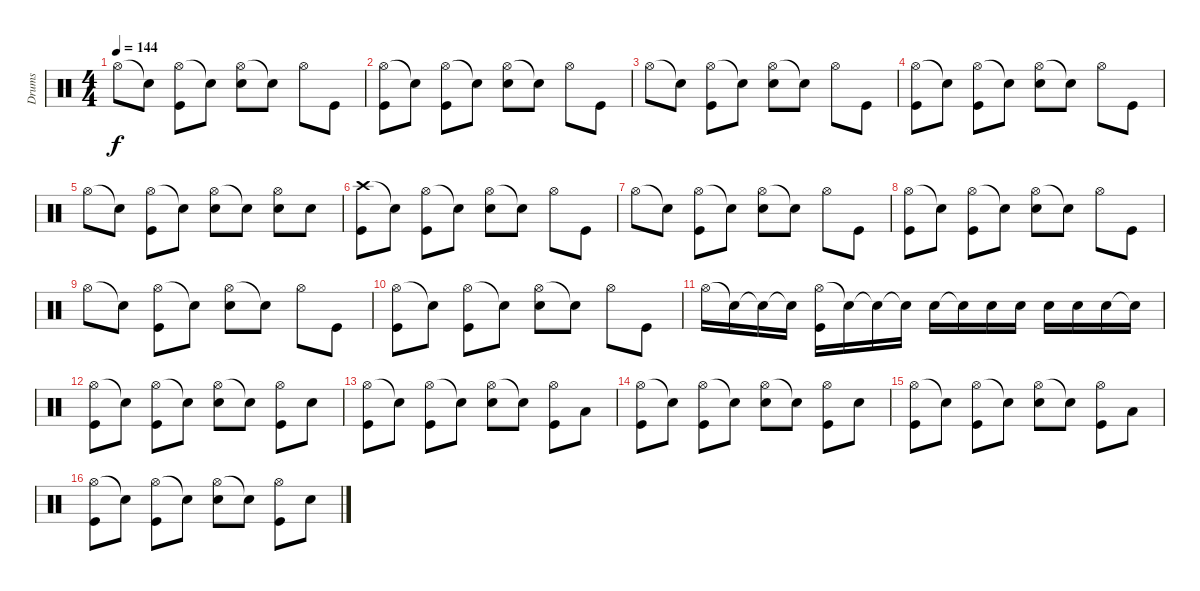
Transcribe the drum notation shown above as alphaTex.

\track ("Drums               " "Drums     ") {instrument percussion}
\staff {score}
\articulation defaults
\ts (4 4)
\tempo 144
\clef neutral
\ks c "Hi-Hat (open)".8{dy f} "Snare (hit)"{t}.8
("Hi-Hat (open)" "Kick (hit)").8 "Snare (hit)"{t}.8 ("Hi-Hat (open)" "Snare (hit) 2").8 "Snare (hit)"{t}.8 "Hi-Hat (open)".8 "Kick (hit)".8 |
("Hi-Hat (open)" "Kick (hit)").8 "Snare (hit)"{t}.8 ("Hi-Hat (open)" "Kick (hit)").8 "Snare (hit)"{t}.8 ("Hi-Hat (open)" "Snare (hit) 2").8 "Snare (hit)"{t}.8 "Hi-Hat (open)".8 "Kick (hit)".8 |
"Hi-Hat (open)".8 "Snare (hit)"{t}.8 ("Hi-Hat (open)" "Kick (hit)").8 "Snare (hit)"{t}.8 ("Hi-Hat (open)" "Snare (hit) 2").8 "Snare (hit)"{t}.8 "Hi-Hat (open)".8 "Kick (hit)".8 |
("Hi-Hat (open)" "Kick (hit)").8 "Snare (hit)"{t}.8 ("Hi-Hat (open)" "Kick (hit)").8 "Snare (hit)"{t}.8 ("Hi-Hat (open)" "Snare (hit) 2").8 "Snare (hit)"{t}.8 "Hi-Hat (open)".8 "Kick (hit)".8 |
"Hi-Hat (open)".8 "Snare (hit)"{t}.8 ("Hi-Hat (open)" "Kick (hit)").8 "Snare (hit)"{t}.8 ("Hi-Hat (open)" "Snare (hit) 2").8 "Snare (hit)"{t}.8 ("Hi-Hat (open)" "Snare (hit) 2").8 "Snare (hit) 2".8 |
("Crash high (hit)" "Kick (hit)").8 "Snare (hit)"{t}.8 ("Hi-Hat (open)" "Kick (hit)").8 "Snare (hit)"{t}.8 ("Hi-Hat (open)" "Snare (hit) 2").8 "Snare (hit)"{t}.8 "Hi-Hat (open)".8 "Kick (hit)".8 |
"Hi-Hat (open)".8 "Snare (hit)"{t}.8 ("Hi-Hat (open)" "Kick (hit)").8 "Snare (hit)"{t}.8 ("Hi-Hat (open)" "Snare (hit) 2").8 "Snare (hit)"{t}.8 "Hi-Hat (open)".8 "Kick (hit)".8 |
("Hi-Hat (open)" "Kick (hit)").8 "Snare (hit)"{t}.8 ("Hi-Hat (open)" "Kick (hit)").8 "Snare (hit)"{t}.8 ("Hi-Hat (open)" "Snare (hit) 2").8 "Snare (hit)"{t}.8 "Hi-Hat (open)".8 "Kick (hit)".8 |
"Hi-Hat (open)".8 "Snare (hit)"{t}.8 ("Hi-Hat (open)" "Kick (hit)").8 "Snare (hit)"{t}.8 ("Hi-Hat (open)" "Snare (hit) 2").8 "Snare (hit)"{t}.8 "Hi-Hat (open)".8 "Kick (hit)".8 |
("Hi-Hat (open)" "Kick (hit)").8 "Snare (hit)"{t}.8 ("Hi-Hat (open)" "Kick (hit)").8 "Snare (hit)"{t}.8 ("Hi-Hat (open)" "Snare (hit) 2").8 "Snare (hit)"{t}.8 "Hi-Hat (open)".8 "Kick (hit)".8 |
"Hi-Hat (open)".16 "Snare (hit)"{t}.16 "Snare (hit)"{t}.16 "Snare (hit)"{t}.16 ("Hi-Hat (open)" "Kick (hit)").16 "Snare (hit)"{t}.16 "Snare (hit)"{t}.16 "Snare (hit)"{t}.16 "Snare (hit) 2".16 "Snare (hit)"{t}.16 "Snare (hit) 2".16 "Snare (hit) 2".16 "Snare (hit) 2".16 "Snare (hit) 2".16 "Snare (hit) 2".16 "Snare (hit)"{t}.16 |
("Hi-Hat (open)" "Kick (hit)").8 "Snare (hit)"{t}.8 ("Hi-Hat (open)" "Kick (hit)").8 "Snare (hit)"{t}.8 ("Hi-Hat (open)" "Snare (hit) 2").8 "Snare (hit)"{t}.8 ("Hi-Hat (open)" "Kick (hit)").8 "Snare (hit) 2".8 |
("Hi-Hat (open)" "Kick (hit)").8 "Snare (hit)"{t}.8 ("Hi-Hat (open)" "Kick (hit)").8 "Snare (hit)"{t}.8 ("Hi-Hat (open)" "Snare (hit) 2").8 "Snare (hit)"{t}.8 ("Hi-Hat (open)" "Kick (hit)").8 "Low Tom (hit)".8 |
("Hi-Hat (open)" "Kick (hit)").8 "Snare (hit)"{t}.8 ("Hi-Hat (open)" "Kick (hit)").8 "Snare (hit)"{t}.8 ("Hi-Hat (open)" "Snare (hit) 2").8 "Snare (hit)"{t}.8 ("Hi-Hat (open)" "Kick (hit)").8 "Snare (hit) 2".8 |
("Hi-Hat (open)" "Kick (hit)").8 "Snare (hit)"{t}.8 ("Hi-Hat (open)" "Kick (hit)").8 "Snare (hit)"{t}.8 ("Hi-Hat (open)" "Snare (hit) 2").8 "Snare (hit)"{t}.8 ("Hi-Hat (open)" "Kick (hit)").8 "Low Tom (hit)".8 |
("Hi-Hat (open)" "Kick (hit)").8 "Snare (hit)"{t}.8 ("Hi-Hat (open)" "Kick (hit)").8 "Snare (hit)"{t}.8 ("Hi-Hat (open)" "Snare (hit) 2").8 "Snare (hit)"{t}.8 ("Hi-Hat (open)" "Kick (hit)").8 "Snare (hit) 2".8
